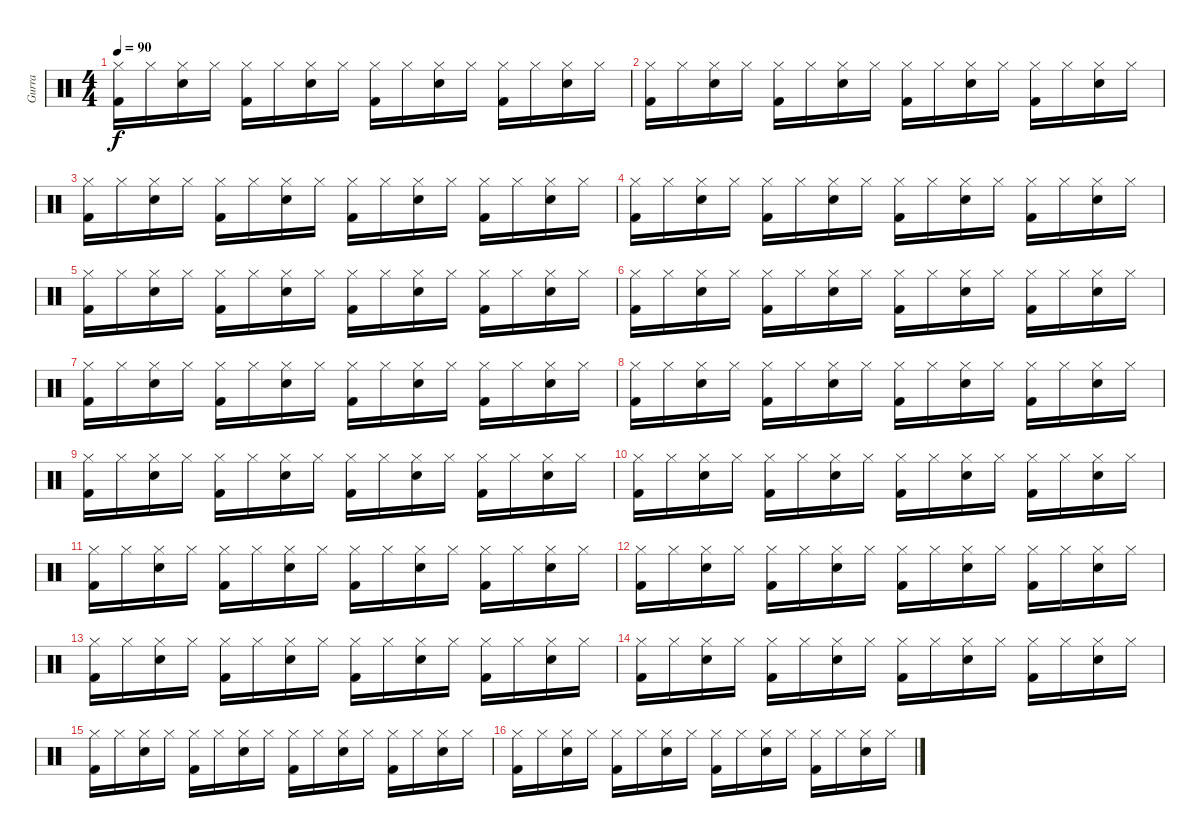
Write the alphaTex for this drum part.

\track ("Gurra" "Gurra") {instrument percussion}
\staff {score}
\articulation defaults
\ts (4 4)
\tempo 90
\clef neutral
\ks c
("Kick (hit) 2" "Hi-Hat (closed)").16{dy f} "Hi-Hat (closed)".16 ("Snare (hit) 2" "Hi-Hat (closed)").16 "Hi-Hat (closed)".16 ("Kick (hit) 2" "Hi-Hat (closed)").16 "Hi-Hat (closed)".16 ("Snare (hit) 2" "Hi-Hat (closed)").16 "Hi-Hat (closed)".16 ("Kick (hit) 2" "Hi-Hat (closed)").16 "Hi-Hat (closed)".16 ("Snare (hit) 2" "Hi-Hat (closed)").16 "Hi-Hat (closed)".16 ("Kick (hit) 2" "Hi-Hat (closed)").16 "Hi-Hat (closed)".16 ("Snare (hit) 2" "Hi-Hat (closed)").16 "Hi-Hat (closed)".16 |
("Kick (hit) 2" "Hi-Hat (closed)").16 "Hi-Hat (closed)".16 ("Snare (hit) 2" "Hi-Hat (closed)").16 "Hi-Hat (closed)".16 ("Kick (hit) 2" "Hi-Hat (closed)").16 "Hi-Hat (closed)".16 ("Snare (hit) 2" "Hi-Hat (closed)").16 "Hi-Hat (closed)".16 ("Kick (hit) 2" "Hi-Hat (closed)").16 "Hi-Hat (closed)".16 ("Snare (hit) 2" "Hi-Hat (closed)").16 "Hi-Hat (closed)".16 ("Kick (hit) 2" "Hi-Hat (closed)").16 "Hi-Hat (closed)".16 ("Snare (hit) 2" "Hi-Hat (closed)").16 "Hi-Hat (closed)".16 |
("Kick (hit) 2" "Hi-Hat (closed)").16 "Hi-Hat (closed)".16 ("Snare (hit) 2" "Hi-Hat (closed)").16 "Hi-Hat (closed)".16 ("Kick (hit) 2" "Hi-Hat (closed)").16 "Hi-Hat (closed)".16 ("Snare (hit) 2" "Hi-Hat (closed)").16 "Hi-Hat (closed)".16 ("Kick (hit) 2" "Hi-Hat (closed)").16 "Hi-Hat (closed)".16 ("Snare (hit) 2" "Hi-Hat (closed)").16 "Hi-Hat (closed)".16 ("Kick (hit) 2" "Hi-Hat (closed)").16 "Hi-Hat (closed)".16 ("Snare (hit) 2" "Hi-Hat (closed)").16 "Hi-Hat (closed)".16 |
("Kick (hit) 2" "Hi-Hat (closed)").16 "Hi-Hat (closed)".16 ("Snare (hit) 2" "Hi-Hat (closed)").16 "Hi-Hat (closed)".16 ("Kick (hit) 2" "Hi-Hat (closed)").16 "Hi-Hat (closed)".16 ("Snare (hit) 2" "Hi-Hat (closed)").16 "Hi-Hat (closed)".16 ("Kick (hit) 2" "Hi-Hat (closed)").16 "Hi-Hat (closed)".16 ("Snare (hit) 2" "Hi-Hat (closed)").16 "Hi-Hat (closed)".16 ("Kick (hit) 2" "Hi-Hat (closed)").16 "Hi-Hat (closed)".16 ("Snare (hit) 2" "Hi-Hat (closed)").16 "Hi-Hat (closed)".16 |
("Kick (hit) 2" "Hi-Hat (closed)").16 "Hi-Hat (closed)".16 ("Snare (hit) 2" "Hi-Hat (closed)").16 "Hi-Hat (closed)".16 ("Kick (hit) 2" "Hi-Hat (closed)").16 "Hi-Hat (closed)".16 ("Snare (hit) 2" "Hi-Hat (closed)").16 "Hi-Hat (closed)".16 ("Kick (hit) 2" "Hi-Hat (closed)").16 "Hi-Hat (closed)".16 ("Snare (hit) 2" "Hi-Hat (closed)").16 "Hi-Hat (closed)".16 ("Kick (hit) 2" "Hi-Hat (closed)").16 "Hi-Hat (closed)".16 ("Snare (hit) 2" "Hi-Hat (closed)").16 "Hi-Hat (closed)".16 |
("Kick (hit) 2" "Hi-Hat (closed)").16 "Hi-Hat (closed)".16 ("Snare (hit) 2" "Hi-Hat (closed)").16 "Hi-Hat (closed)".16 ("Kick (hit) 2" "Hi-Hat (closed)").16 "Hi-Hat (closed)".16 ("Snare (hit) 2" "Hi-Hat (closed)").16 "Hi-Hat (closed)".16 ("Kick (hit) 2" "Hi-Hat (closed)").16 "Hi-Hat (closed)".16 ("Snare (hit) 2" "Hi-Hat (closed)").16 "Hi-Hat (closed)".16 ("Kick (hit) 2" "Hi-Hat (closed)").16 "Hi-Hat (closed)".16 ("Snare (hit) 2" "Hi-Hat (closed)").16 "Hi-Hat (closed)".16 |
("Kick (hit) 2" "Hi-Hat (closed)").16 "Hi-Hat (closed)".16 ("Snare (hit) 2" "Hi-Hat (closed)").16 "Hi-Hat (closed)".16 ("Kick (hit) 2" "Hi-Hat (closed)").16 "Hi-Hat (closed)".16 ("Snare (hit) 2" "Hi-Hat (closed)").16 "Hi-Hat (closed)".16 ("Kick (hit) 2" "Hi-Hat (closed)").16 "Hi-Hat (closed)".16 ("Snare (hit) 2" "Hi-Hat (closed)").16 "Hi-Hat (closed)".16 ("Kick (hit) 2" "Hi-Hat (closed)").16 "Hi-Hat (closed)".16 ("Snare (hit) 2" "Hi-Hat (closed)").16 "Hi-Hat (closed)".16 |
("Kick (hit) 2" "Hi-Hat (closed)").16 "Hi-Hat (closed)".16 ("Snare (hit) 2" "Hi-Hat (closed)").16 "Hi-Hat (closed)".16 ("Kick (hit) 2" "Hi-Hat (closed)").16 "Hi-Hat (closed)".16 ("Snare (hit) 2" "Hi-Hat (closed)").16 "Hi-Hat (closed)".16 ("Kick (hit) 2" "Hi-Hat (closed)").16 "Hi-Hat (closed)".16 ("Snare (hit) 2" "Hi-Hat (closed)").16 "Hi-Hat (closed)".16 ("Kick (hit) 2" "Hi-Hat (closed)").16 "Hi-Hat (closed)".16 ("Snare (hit) 2" "Hi-Hat (closed)").16 "Hi-Hat (closed)".16 |
("Kick (hit) 2" "Hi-Hat (closed)").16 "Hi-Hat (closed)".16 ("Snare (hit) 2" "Hi-Hat (closed)").16 "Hi-Hat (closed)".16 ("Kick (hit) 2" "Hi-Hat (closed)").16 "Hi-Hat (closed)".16 ("Snare (hit) 2" "Hi-Hat (closed)").16 "Hi-Hat (closed)".16 ("Kick (hit) 2" "Hi-Hat (closed)").16 "Hi-Hat (closed)".16 ("Snare (hit) 2" "Hi-Hat (closed)").16 "Hi-Hat (closed)".16 ("Kick (hit) 2" "Hi-Hat (closed)").16 "Hi-Hat (closed)".16 ("Snare (hit) 2" "Hi-Hat (closed)").16 "Hi-Hat (closed)".16 |
("Kick (hit) 2" "Hi-Hat (closed)").16 "Hi-Hat (closed)".16 ("Snare (hit) 2" "Hi-Hat (closed)").16 "Hi-Hat (closed)".16 ("Kick (hit) 2" "Hi-Hat (closed)").16 "Hi-Hat (closed)".16 ("Snare (hit) 2" "Hi-Hat (closed)").16 "Hi-Hat (closed)".16 ("Kick (hit) 2" "Hi-Hat (closed)").16 "Hi-Hat (closed)".16 ("Snare (hit) 2" "Hi-Hat (closed)").16 "Hi-Hat (closed)".16 ("Kick (hit) 2" "Hi-Hat (closed)").16 "Hi-Hat (closed)".16 ("Snare (hit) 2" "Hi-Hat (closed)").16 "Hi-Hat (closed)".16 |
("Kick (hit) 2" "Hi-Hat (closed)").16 "Hi-Hat (closed)".16 ("Snare (hit) 2" "Hi-Hat (closed)").16 "Hi-Hat (closed)".16 ("Kick (hit) 2" "Hi-Hat (closed)").16 "Hi-Hat (closed)".16 ("Snare (hit) 2" "Hi-Hat (closed)").16 "Hi-Hat (closed)".16 ("Kick (hit) 2" "Hi-Hat (closed)").16 "Hi-Hat (closed)".16 ("Snare (hit) 2" "Hi-Hat (closed)").16 "Hi-Hat (closed)".16 ("Kick (hit) 2" "Hi-Hat (closed)").16 "Hi-Hat (closed)".16 ("Snare (hit) 2" "Hi-Hat (closed)").16 "Hi-Hat (closed)".16 |
("Kick (hit) 2" "Hi-Hat (closed)").16 "Hi-Hat (closed)".16 ("Snare (hit) 2" "Hi-Hat (closed)").16 "Hi-Hat (closed)".16 ("Kick (hit) 2" "Hi-Hat (closed)").16 "Hi-Hat (closed)".16 ("Snare (hit) 2" "Hi-Hat (closed)").16 "Hi-Hat (closed)".16 ("Kick (hit) 2" "Hi-Hat (closed)").16 "Hi-Hat (closed)".16 ("Snare (hit) 2" "Hi-Hat (closed)").16 "Hi-Hat (closed)".16 ("Kick (hit) 2" "Hi-Hat (closed)").16 "Hi-Hat (closed)".16 ("Snare (hit) 2" "Hi-Hat (closed)").16 "Hi-Hat (closed)".16 |
("Kick (hit) 2" "Hi-Hat (closed)").16 "Hi-Hat (closed)".16 ("Snare (hit) 2" "Hi-Hat (closed)").16 "Hi-Hat (closed)".16 ("Kick (hit) 2" "Hi-Hat (closed)").16 "Hi-Hat (closed)".16 ("Snare (hit) 2" "Hi-Hat (closed)").16 "Hi-Hat (closed)".16 ("Kick (hit) 2" "Hi-Hat (closed)").16 "Hi-Hat (closed)".16 ("Snare (hit) 2" "Hi-Hat (closed)").16 "Hi-Hat (closed)".16 ("Kick (hit) 2" "Hi-Hat (closed)").16 "Hi-Hat (closed)".16 ("Snare (hit) 2" "Hi-Hat (closed)").16 "Hi-Hat (closed)".16 |
("Kick (hit) 2" "Hi-Hat (closed)").16 "Hi-Hat (closed)".16 ("Snare (hit) 2" "Hi-Hat (closed)").16 "Hi-Hat (closed)".16 ("Kick (hit) 2" "Hi-Hat (closed)").16 "Hi-Hat (closed)".16 ("Snare (hit) 2" "Hi-Hat (closed)").16 "Hi-Hat (closed)".16 ("Kick (hit) 2" "Hi-Hat (closed)").16 "Hi-Hat (closed)".16 ("Snare (hit) 2" "Hi-Hat (closed)").16 "Hi-Hat (closed)".16 ("Kick (hit) 2" "Hi-Hat (closed)").16 "Hi-Hat (closed)".16 ("Snare (hit) 2" "Hi-Hat (closed)").16 "Hi-Hat (closed)".16 |
("Kick (hit) 2" "Hi-Hat (closed)").16 "Hi-Hat (closed)".16 ("Snare (hit) 2" "Hi-Hat (closed)").16 "Hi-Hat (closed)".16 ("Kick (hit) 2" "Hi-Hat (closed)").16 "Hi-Hat (closed)".16 ("Snare (hit) 2" "Hi-Hat (closed)").16 "Hi-Hat (closed)".16 ("Kick (hit) 2" "Hi-Hat (closed)").16 "Hi-Hat (closed)".16 ("Snare (hit) 2" "Hi-Hat (closed)").16 "Hi-Hat (closed)".16 ("Kick (hit) 2" "Hi-Hat (closed)").16 "Hi-Hat (closed)".16 ("Snare (hit) 2" "Hi-Hat (closed)").16 "Hi-Hat (closed)".16 |
("Kick (hit) 2" "Hi-Hat (closed)").16 "Hi-Hat (closed)".16 ("Snare (hit) 2" "Hi-Hat (closed)").16 "Hi-Hat (closed)".16 ("Kick (hit) 2" "Hi-Hat (closed)").16 "Hi-Hat (closed)".16 ("Snare (hit) 2" "Hi-Hat (closed)").16 "Hi-Hat (closed)".16 ("Kick (hit) 2" "Hi-Hat (closed)").16 "Hi-Hat (closed)".16 ("Snare (hit) 2" "Hi-Hat (closed)").16 "Hi-Hat (closed)".16 ("Kick (hit) 2" "Hi-Hat (closed)").16 "Hi-Hat (closed)".16 ("Snare (hit) 2" "Hi-Hat (closed)").16 "Hi-Hat (closed)".16
